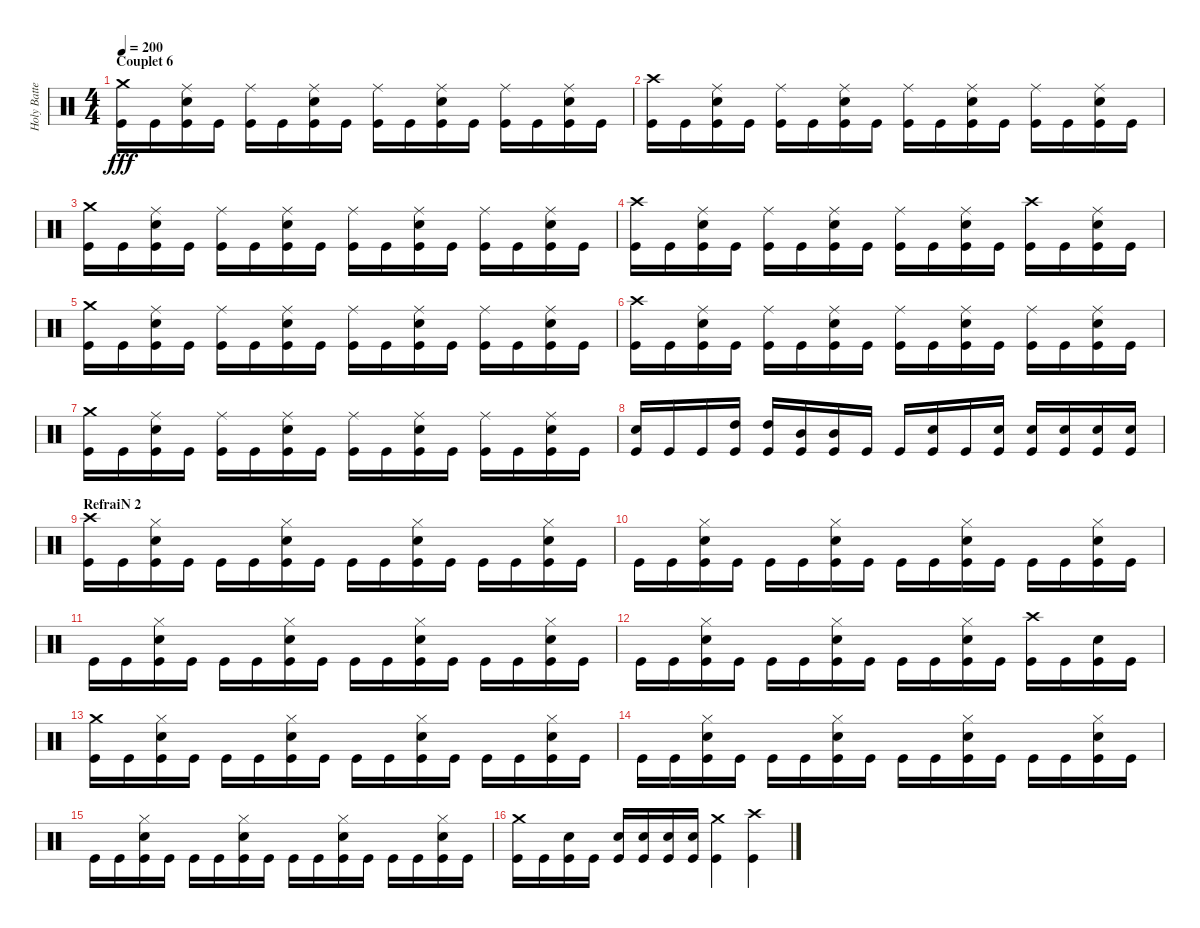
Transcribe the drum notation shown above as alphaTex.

\track ("Holy Batteur" "Holy Batte") {instrument percussion}
\staff {score}
\articulation defaults
\ts (4 4)
\section ("" "Couplet 6")
\tempo 200
\clef neutral
\ks c
("Crash medium (hit)" "Kick (hit)").16{dy fff} "Kick (hit)".16 ("Ride (middle)" "Electric Snare (hit)" "Kick (hit)").16 "Kick (hit)".16 ("Ride (middle)" "Kick (hit)").16 "Kick (hit)".16 ("Ride (middle)" "Electric Snare (hit)" "Kick (hit)").16 "Kick (hit)".16 ("Ride (middle)" "Kick (hit)").16 "Kick (hit)".16 ("Ride (middle)" "Electric Snare (hit)" "Kick (hit)").16 "Kick (hit)".16 ("Ride (middle)" "Kick (hit)").16 "Kick (hit)".16 ("Ride (middle)" "Electric Snare (hit)" "Kick (hit)").16 "Kick (hit)".16 |
("Crash high (hit)" "Kick (hit)").16 "Kick (hit)".16 ("Ride (middle)" "Electric Snare (hit)" "Kick (hit)").16 "Kick (hit)".16 ("Ride (middle)" "Kick (hit)").16 "Kick (hit)".16 ("Ride (middle)" "Electric Snare (hit)" "Kick (hit)").16 "Kick (hit)".16 ("Ride (middle)" "Kick (hit)").16 "Kick (hit)".16 ("Ride (middle)" "Electric Snare (hit)" "Kick (hit)").16 "Kick (hit)".16 ("Ride (middle)" "Kick (hit)").16 "Kick (hit)".16 ("Ride (middle)" "Electric Snare (hit)" "Kick (hit)").16 "Kick (hit)".16 |
("Crash medium (hit)" "Kick (hit)").16 "Kick (hit)".16 ("Ride (middle)" "Electric Snare (hit)" "Kick (hit)").16 "Kick (hit)".16 ("Ride (middle)" "Kick (hit)").16 "Kick (hit)".16 ("Ride (middle)" "Electric Snare (hit)" "Kick (hit)").16 "Kick (hit)".16 ("Ride (middle)" "Kick (hit)").16 "Kick (hit)".16 ("Ride (middle)" "Electric Snare (hit)" "Kick (hit)").16 "Kick (hit)".16 ("Ride (middle)" "Kick (hit)").16 "Kick (hit)".16 ("Ride (middle)" "Electric Snare (hit)" "Kick (hit)").16 "Kick (hit)".16 |
("Crash high (hit)" "Kick (hit)").16 "Kick (hit)".16 ("Ride (middle)" "Electric Snare (hit)" "Kick (hit)").16 "Kick (hit)".16 ("Ride (middle)" "Kick (hit)").16 "Kick (hit)".16 ("Ride (middle)" "Electric Snare (hit)" "Kick (hit)").16 "Kick (hit)".16 ("Ride (middle)" "Kick (hit)").16 "Kick (hit)".16 ("Ride (middle)" "Electric Snare (hit)" "Kick (hit)").16 "Kick (hit)".16 ("Crash high (hit)" "Kick (hit)").16 "Kick (hit)".16 ("Ride (middle)" "Electric Snare (hit)" "Kick (hit)").16 "Kick (hit)".16 |
("Crash medium (hit)" "Kick (hit)").16 "Kick (hit)".16 ("Ride (middle)" "Electric Snare (hit)" "Kick (hit)").16 "Kick (hit)".16 ("Ride (middle)" "Kick (hit)").16 "Kick (hit)".16 ("Ride (middle)" "Electric Snare (hit)" "Kick (hit)").16 "Kick (hit)".16 ("Ride (middle)" "Kick (hit)").16 "Kick (hit)".16 ("Ride (middle)" "Electric Snare (hit)" "Kick (hit)").16 "Kick (hit)".16 ("Ride (middle)" "Kick (hit)").16 "Kick (hit)".16 ("Ride (middle)" "Electric Snare (hit)" "Kick (hit)").16 "Kick (hit)".16 |
("Crash high (hit)" "Kick (hit)").16 "Kick (hit)".16 ("Ride (middle)" "Electric Snare (hit)" "Kick (hit)").16 "Kick (hit)".16 ("Ride (middle)" "Kick (hit)").16 "Kick (hit)".16 ("Ride (middle)" "Electric Snare (hit)" "Kick (hit)").16 "Kick (hit)".16 ("Ride (middle)" "Kick (hit)").16 "Kick (hit)".16 ("Ride (middle)" "Electric Snare (hit)" "Kick (hit)").16 "Kick (hit)".16 ("Ride (middle)" "Kick (hit)").16 "Kick (hit)".16 ("Ride (middle)" "Electric Snare (hit)" "Kick (hit)").16 "Kick (hit)".16 |
("Crash medium (hit)" "Kick (hit)").16 "Kick (hit)".16 ("Ride (middle)" "Electric Snare (hit)" "Kick (hit)").16 "Kick (hit)".16 ("Ride (middle)" "Kick (hit)").16 "Kick (hit)".16 ("Ride (middle)" "Electric Snare (hit)" "Kick (hit)").16 "Kick (hit)".16 ("Ride (middle)" "Kick (hit)").16 "Kick (hit)".16 ("Ride (middle)" "Electric Snare (hit)" "Kick (hit)").16 "Kick (hit)".16 ("Ride (middle)" "Kick (hit)").16 "Kick (hit)".16 ("Ride (middle)" "Electric Snare (hit)" "Kick (hit)").16 "Kick (hit)".16 |
("Electric Snare (hit)" "Kick (hit)").16 "Kick (hit)".16 "Kick (hit)".16 ("High Tom (hit)" "Kick (hit)").16 ("High Tom (hit)" "Kick (hit)").16 ("Mid Tom (hit)" "Kick (hit)").16 ("Mid Tom (hit)" "Kick (hit)").16 "Kick (hit)".16 "Kick (hit)".16 ("Electric Snare (hit)" "Kick (hit)").16 "Kick (hit)".16 ("Electric Snare (hit)" "Kick (hit)").16 ("Electric Snare (hit)" "Kick (hit)").16 ("Electric Snare (hit)" "Kick (hit)").16 ("Electric Snare (hit)" "Kick (hit)").16 ("Electric Snare (hit)" "Kick (hit)").16 |
\section ("" "RefraiN 2")
("Crash high (hit)" "Kick (hit)").16 "Kick (hit)".16 ("Hi-Hat (closed)" "Electric Snare (hit)" "Kick (hit)").16 "Kick (hit)".16 "Kick (hit)".16 "Kick (hit)".16 ("Hi-Hat (closed)" "Electric Snare (hit)" "Kick (hit)").16 "Kick (hit)".16 "Kick (hit)".16 "Kick (hit)".16 ("Hi-Hat (closed)" "Electric Snare (hit)" "Kick (hit)").16 "Kick (hit)".16 "Kick (hit)".16 "Kick (hit)".16 ("Hi-Hat (closed)" "Electric Snare (hit)" "Kick (hit)").16 "Kick (hit)".16 |
"Kick (hit)".16 "Kick (hit)".16 ("Hi-Hat (closed)" "Electric Snare (hit)" "Kick (hit)").16 "Kick (hit)".16 "Kick (hit)".16 "Kick (hit)".16 ("Hi-Hat (closed)" "Electric Snare (hit)" "Kick (hit)").16 "Kick (hit)".16 "Kick (hit)".16 "Kick (hit)".16 ("Hi-Hat (closed)" "Electric Snare (hit)" "Kick (hit)").16 "Kick (hit)".16 "Kick (hit)".16 "Kick (hit)".16 ("Hi-Hat (closed)" "Electric Snare (hit)" "Kick (hit)").16 "Kick (hit)".16 |
"Kick (hit)".16 "Kick (hit)".16 ("Hi-Hat (closed)" "Electric Snare (hit)" "Kick (hit)").16 "Kick (hit)".16 "Kick (hit)".16 "Kick (hit)".16 ("Hi-Hat (closed)" "Electric Snare (hit)" "Kick (hit)").16 "Kick (hit)".16 "Kick (hit)".16 "Kick (hit)".16 ("Hi-Hat (closed)" "Electric Snare (hit)" "Kick (hit)").16 "Kick (hit)".16 "Kick (hit)".16 "Kick (hit)".16 ("Hi-Hat (closed)" "Electric Snare (hit)" "Kick (hit)").16 "Kick (hit)".16 |
"Kick (hit)".16 "Kick (hit)".16 ("Hi-Hat (closed)" "Electric Snare (hit)" "Kick (hit)").16 "Kick (hit)".16 "Kick (hit)".16 "Kick (hit)".16 ("Hi-Hat (closed)" "Electric Snare (hit)" "Kick (hit)").16 "Kick (hit)".16 "Kick (hit)".16 "Kick (hit)".16 ("Hi-Hat (closed)" "Electric Snare (hit)" "Kick (hit)").16 "Kick (hit)".16 ("Crash high (hit)" "Kick (hit)").16 "Kick (hit)".16 ("Electric Snare (hit)" "Kick (hit)").16 "Kick (hit)".16 |
("Crash medium (hit)" "Kick (hit)").16 "Kick (hit)".16 ("Hi-Hat (closed)" "Electric Snare (hit)" "Kick (hit)").16 "Kick (hit)".16 "Kick (hit)".16 "Kick (hit)".16 ("Hi-Hat (closed)" "Electric Snare (hit)" "Kick (hit)").16 "Kick (hit)".16 "Kick (hit)".16 "Kick (hit)".16 ("Hi-Hat (closed)" "Electric Snare (hit)" "Kick (hit)").16 "Kick (hit)".16 "Kick (hit)".16 "Kick (hit)".16 ("Hi-Hat (closed)" "Electric Snare (hit)" "Kick (hit)").16 "Kick (hit)".16 |
"Kick (hit)".16 "Kick (hit)".16 ("Hi-Hat (closed)" "Electric Snare (hit)" "Kick (hit)").16 "Kick (hit)".16 "Kick (hit)".16 "Kick (hit)".16 ("Hi-Hat (closed)" "Electric Snare (hit)" "Kick (hit)").16 "Kick (hit)".16 "Kick (hit)".16 "Kick (hit)".16 ("Hi-Hat (closed)" "Electric Snare (hit)" "Kick (hit)").16 "Kick (hit)".16 "Kick (hit)".16 "Kick (hit)".16 ("Hi-Hat (closed)" "Electric Snare (hit)" "Kick (hit)").16 "Kick (hit)".16 |
"Kick (hit)".16 "Kick (hit)".16 ("Hi-Hat (closed)" "Electric Snare (hit)" "Kick (hit)").16 "Kick (hit)".16 "Kick (hit)".16 "Kick (hit)".16 ("Hi-Hat (closed)" "Electric Snare (hit)" "Kick (hit)").16 "Kick (hit)".16 "Kick (hit)".16 "Kick (hit)".16 ("Hi-Hat (closed)" "Electric Snare (hit)" "Kick (hit)").16 "Kick (hit)".16 "Kick (hit)".16 "Kick (hit)".16 ("Hi-Hat (closed)" "Electric Snare (hit)" "Kick (hit)").16 "Kick (hit)".16 |
("Crash medium (hit)" "Kick (hit)").16 "Kick (hit)".16 ("Electric Snare (hit)" "Kick (hit)").16 "Kick (hit)".16 ("Electric Snare (hit)" "Kick (hit)").16 ("Electric Snare (hit)" "Kick (hit)").16 ("Electric Snare (hit)" "Kick (hit)").16 ("Electric Snare (hit)" "Kick (hit)").16 ("Crash medium (hit)" "Kick (hit)").4 ("Crash high (hit)" "Kick (hit)").4
